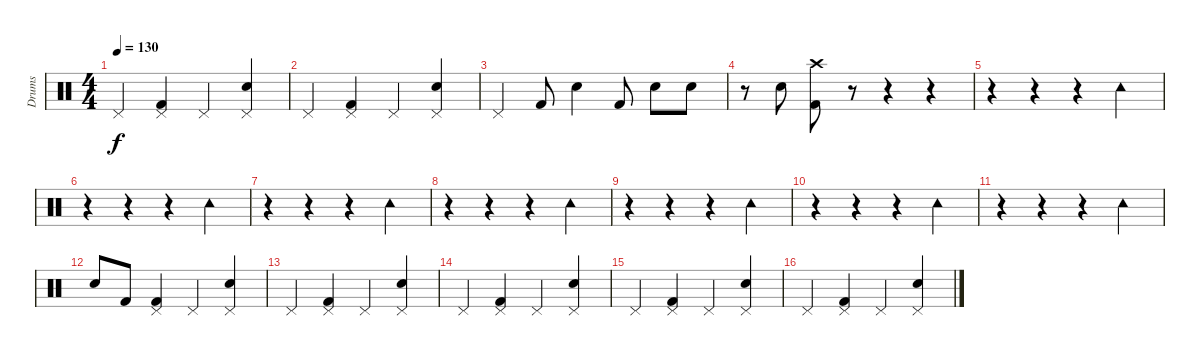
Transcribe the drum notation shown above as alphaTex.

\track ("Drums" "Drums") {instrument percussion}
\staff {score}
\articulation defaults
\ts (4 4)
\tempo 130
\clef neutral
\ks c "Pedal Hi-Hat (hit)".4{dy f}
("Kick (hit) 2" "Pedal Hi-Hat (hit)").4 "Pedal Hi-Hat (hit)".4 ("Snare (hit) 2" "Pedal Hi-Hat (hit)").4 |
"Pedal Hi-Hat (hit)".4 ("Kick (hit) 2" "Pedal Hi-Hat (hit)").4 "Pedal Hi-Hat (hit)".4 ("Snare (hit) 2" "Pedal Hi-Hat (hit)").4 |
"Pedal Hi-Hat (hit)".4 "Kick (hit) 2".8 "Snare (hit) 2".4 "Kick (hit) 2".8 "Snare (hit) 2".8 "Snare (hit) 2".8 |
r.8 "Snare (hit) 2".8 ("Kick (hit) 2" "Crash high (hit)").8 r.8 r.4 r.4 |
r.4 r.4 r.4 "Tambourine (hit)".4 |
r.4 r.4 r.4 "Tambourine (hit)".4 |
r.4 r.4 r.4 "Tambourine (hit)".4 |
r.4 r.4 r.4 "Tambourine (hit)".4 |
r.4 r.4 r.4 "Tambourine (hit)".4 |
r.4 r.4 r.4 "Tambourine (hit)".4 |
r.4 r.4 r.4 "Tambourine (hit)".4 |
"Snare (hit) 2".8 "Kick (hit) 2".8 ("Kick (hit) 2" "Pedal Hi-Hat (hit)").4 "Pedal Hi-Hat (hit)".4 ("Snare (hit) 2" "Pedal Hi-Hat (hit)").4 |
"Pedal Hi-Hat (hit)".4 ("Kick (hit) 2" "Pedal Hi-Hat (hit)").4 "Pedal Hi-Hat (hit)".4 ("Snare (hit) 2" "Pedal Hi-Hat (hit)").4 |
"Pedal Hi-Hat (hit)".4 ("Kick (hit) 2" "Pedal Hi-Hat (hit)").4 "Pedal Hi-Hat (hit)".4 ("Snare (hit) 2" "Pedal Hi-Hat (hit)").4 |
"Pedal Hi-Hat (hit)".4 ("Kick (hit) 2" "Pedal Hi-Hat (hit)").4 "Pedal Hi-Hat (hit)".4 ("Snare (hit) 2" "Pedal Hi-Hat (hit)").4 |
"Pedal Hi-Hat (hit)".4 ("Kick (hit) 2" "Pedal Hi-Hat (hit)").4 "Pedal Hi-Hat (hit)".4 ("Snare (hit) 2" "Pedal Hi-Hat (hit)").4
